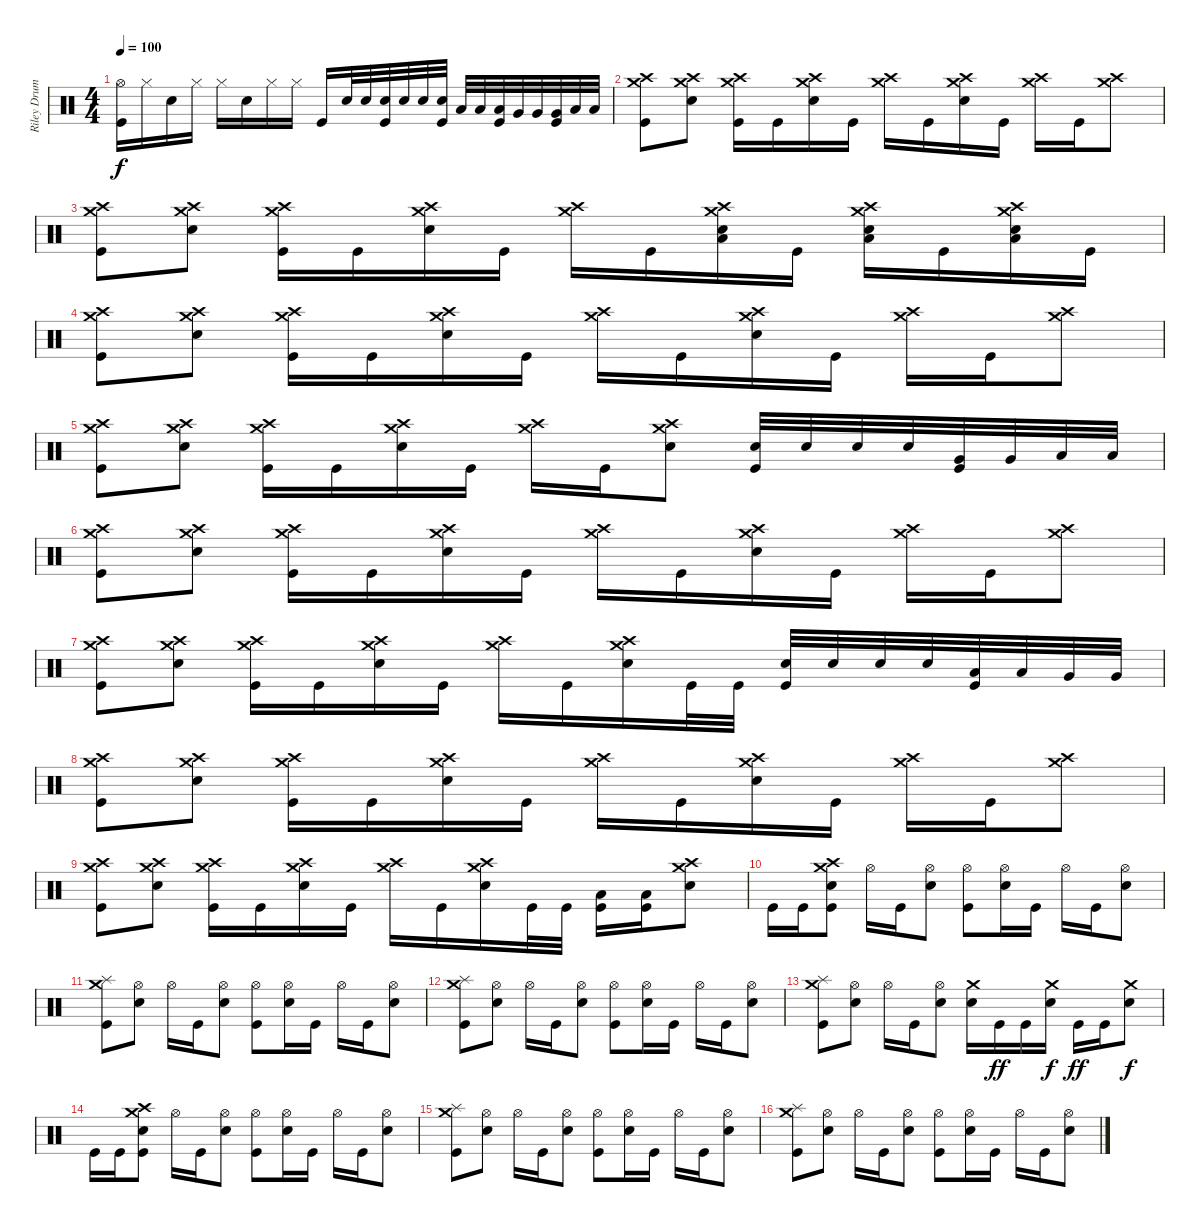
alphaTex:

\track ("Riley Drums" "Riley Drum") {instrument percussion}
\staff {score}
\articulation defaults
\ts (4 4)
\tempo 100
\clef neutral
\ks c
("Hi-Hat (open)" "Kick (hit)").16{dy f} "Hi-Hat (closed)".16 "Electric Snare (hit)".16 "Hi-Hat (closed)".16 "Hi-Hat (closed)".16 "Electric Snare (hit)".16 "Hi-Hat (closed)".16 "Hi-Hat (closed)".16 "Kick (hit)".16 "Electric Snare (hit)".32 "Electric Snare (hit)".32 ("Electric Snare (hit)" "Kick (hit)").32 "Electric Snare (hit)".32 "Electric Snare (hit)".32 ("Electric Snare (hit)" "Kick (hit)").32 "Low Tom (hit)".32 "Low Tom (hit)".32 ("Low Tom (hit)" "Kick (hit)").32 "Very Low Tom (hit)".32 "Very Low Tom (hit)".32 ("Very Low Tom (hit)" "Kick (hit)").32 "Low Floor Tom (hit)".32 "Low Floor Tom (hit)".32 |
("Crash medium (hit)" "Crash high (hit)" "Kick (hit)").8 ("Crash medium (hit)" "Crash high (hit)" "Electric Snare (hit)").8 ("Crash medium (hit)" "Crash high (hit)" "Kick (hit)").16 "Kick (hit)".16 ("Crash medium (hit)" "Crash high (hit)" "Electric Snare (hit)").16 "Kick (hit)".16 ("Crash medium (hit)" "Crash high (hit)").16 "Kick (hit)".16 ("Crash medium (hit)" "Crash high (hit)" "Electric Snare (hit)").16 "Kick (hit)".16 ("Crash medium (hit)" "Crash high (hit)").16 "Kick (hit)".16 ("Crash medium (hit)" "Crash high (hit)").8 |
("Crash medium (hit)" "Crash high (hit)" "Kick (hit)").8 ("Crash medium (hit)" "Crash high (hit)" "Electric Snare (hit)").8 ("Crash medium (hit)" "Crash high (hit)" "Kick (hit)").16 "Kick (hit)".16 ("Crash medium (hit)" "Crash high (hit)" "Electric Snare (hit)").16 "Kick (hit)".16 ("Crash medium (hit)" "Crash high (hit)").16 "Kick (hit)".16 ("Crash medium (hit)" "Crash high (hit)" "Electric Snare (hit)" "Low Floor Tom (hit)").16 "Kick (hit)".16 ("Crash medium (hit)" "Crash high (hit)" "Electric Snare (hit)" "Low Floor Tom (hit)").16 "Kick (hit)".16 ("Crash medium (hit)" "Crash high (hit)" "Electric Snare (hit)" "Low Floor Tom (hit)").16 "Kick (hit)".16 |
("Crash medium (hit)" "Crash high (hit)" "Kick (hit)").8 ("Crash medium (hit)" "Crash high (hit)" "Electric Snare (hit)").8 ("Crash medium (hit)" "Crash high (hit)" "Kick (hit)").16 "Kick (hit)".16 ("Crash medium (hit)" "Crash high (hit)" "Electric Snare (hit)").16 "Kick (hit)".16 ("Crash medium (hit)" "Crash high (hit)").16 "Kick (hit)".16 ("Crash medium (hit)" "Crash high (hit)" "Electric Snare (hit)").16 "Kick (hit)".16 ("Crash medium (hit)" "Crash high (hit)").16 "Kick (hit)".16 ("Crash medium (hit)" "Crash high (hit)").8 |
("Crash medium (hit)" "Crash high (hit)" "Kick (hit)").8 ("Crash medium (hit)" "Crash high (hit)" "Electric Snare (hit)").8 ("Crash medium (hit)" "Crash high (hit)" "Kick (hit)").16 "Kick (hit)".16 ("Crash medium (hit)" "Crash high (hit)" "Electric Snare (hit)").16 "Kick (hit)".16 ("Crash medium (hit)" "Crash high (hit)").16 "Kick (hit)".16 ("Crash medium (hit)" "Crash high (hit)" "Electric Snare (hit)").8 ("Electric Snare (hit)" "Kick (hit)").32 "Electric Snare (hit)".32 "Electric Snare (hit)".32 "Electric Snare (hit)".32 ("Very Low Tom (hit)" "Kick (hit)").32 "Very Low Tom (hit)".32 "Low Floor Tom (hit)".32 "Low Floor Tom (hit)".32 |
("Crash medium (hit)" "Crash high (hit)" "Kick (hit)").8 ("Crash medium (hit)" "Crash high (hit)" "Electric Snare (hit)").8 ("Crash medium (hit)" "Crash high (hit)" "Kick (hit)").16 "Kick (hit)".16 ("Crash medium (hit)" "Crash high (hit)" "Electric Snare (hit)").16 "Kick (hit)".16 ("Crash medium (hit)" "Crash high (hit)").16 "Kick (hit)".16 ("Crash medium (hit)" "Crash high (hit)" "Electric Snare (hit)").16 "Kick (hit)".16 ("Crash medium (hit)" "Crash high (hit)").16 "Kick (hit)".16 ("Crash medium (hit)" "Crash high (hit)").8 |
("Crash medium (hit)" "Crash high (hit)" "Kick (hit)").8 ("Crash medium (hit)" "Crash high (hit)" "Electric Snare (hit)").8 ("Crash medium (hit)" "Crash high (hit)" "Kick (hit)").16 "Kick (hit)".16 ("Crash medium (hit)" "Crash high (hit)" "Electric Snare (hit)").16 "Kick (hit)".16 ("Crash medium (hit)" "Crash high (hit)").16 "Kick (hit)".16 ("Crash medium (hit)" "Crash high (hit)" "Electric Snare (hit)").16 "Kick (hit)".32 "Kick (hit)".32 ("Electric Snare (hit)" "Kick (hit)").32 "Electric Snare (hit)".32 "Electric Snare (hit)".32 "Electric Snare (hit)".32 ("Low Tom (hit)" "Kick (hit)").32 "Low Tom (hit)".32 "Very Low Tom (hit)".32 "Very Low Tom (hit)".32 |
("Crash medium (hit)" "Crash high (hit)" "Kick (hit)").8 ("Crash medium (hit)" "Crash high (hit)" "Electric Snare (hit)").8 ("Crash medium (hit)" "Crash high (hit)" "Kick (hit)").16 "Kick (hit)".16 ("Crash medium (hit)" "Crash high (hit)" "Electric Snare (hit)").16 "Kick (hit)".16 ("Crash medium (hit)" "Crash high (hit)").16 "Kick (hit)".16 ("Crash medium (hit)" "Crash high (hit)" "Electric Snare (hit)").16 "Kick (hit)".16 ("Crash medium (hit)" "Crash high (hit)").16 "Kick (hit)".16 ("Crash medium (hit)" "Crash high (hit)").8 |
("Crash medium (hit)" "Crash high (hit)" "Kick (hit)").8 ("Crash medium (hit)" "Crash high (hit)" "Electric Snare (hit)").8 ("Crash medium (hit)" "Crash high (hit)" "Kick (hit)").16 "Kick (hit)".16 ("Crash medium (hit)" "Crash high (hit)" "Electric Snare (hit)").16 "Kick (hit)".16 ("Crash medium (hit)" "Crash high (hit)").16 "Kick (hit)".16 ("Crash medium (hit)" "Crash high (hit)" "Electric Snare (hit)").16 "Kick (hit)".32 "Kick (hit)".32 ("Low Floor Tom (hit)" "Kick (hit)").16 ("Low Floor Tom (hit)" "Kick (hit)").16 ("Crash medium (hit)" "Crash high (hit)" "Electric Snare (hit)").8 |
"Kick (hit)".16 "Kick (hit)".16 ("Crash medium (hit)" "Crash high (hit)" "Electric Snare (hit)" "Kick (hit)").8 "Hi-Hat (open)".16 "Kick (hit)".16 ("Hi-Hat (open)" "Electric Snare (hit)").8 ("Hi-Hat (open)" "Kick (hit)").8 ("Hi-Hat (open)" "Electric Snare (hit)").16 "Kick (hit)".16 "Hi-Hat (open)".16 "Kick (hit)".16 ("Hi-Hat (open)" "Electric Snare (hit)").8 |
("Crash medium (hit)" "Splash (hit)" "Kick (hit)").8 ("Hi-Hat (open)" "Electric Snare (hit)").8 "Hi-Hat (open)".16 "Kick (hit)".16 ("Hi-Hat (open)" "Electric Snare (hit)").8 ("Hi-Hat (open)" "Kick (hit)").8 ("Hi-Hat (open)" "Electric Snare (hit)").16 "Kick (hit)".16 "Hi-Hat (open)".16 "Kick (hit)".16 ("Hi-Hat (open)" "Electric Snare (hit)").8 |
("Crash medium (hit)" "Splash (hit)" "Kick (hit)").8 ("Hi-Hat (open)" "Electric Snare (hit)").8 "Hi-Hat (open)".16 "Kick (hit)".16 ("Hi-Hat (open)" "Electric Snare (hit)").8 ("Hi-Hat (open)" "Kick (hit)").8 ("Hi-Hat (open)" "Electric Snare (hit)").16 "Kick (hit)".16 "Hi-Hat (open)".16 "Kick (hit)".16 ("Hi-Hat (open)" "Electric Snare (hit)").8 |
("Crash medium (hit)" "Splash (hit)" "Kick (hit)").8 ("Hi-Hat (open)" "Electric Snare (hit)").8 "Hi-Hat (open)".16 "Kick (hit)".16 ("Hi-Hat (open)" "Electric Snare (hit)").8 ("Crash medium (hit)" "Electric Snare (hit)").16 "Kick (hit)".16{dy ff} "Kick (hit)".16 ("Crash medium (hit)" "Electric Snare (hit)").16{dy f} "Kick (hit)".16{dy ff} "Kick (hit)".16 ("Crash medium (hit)" "Electric Snare (hit)").8{dy f} |
"Kick (hit)".16 "Kick (hit)".16 ("Crash medium (hit)" "Crash high (hit)" "Electric Snare (hit)" "Kick (hit)").8 "Hi-Hat (open)".16 "Kick (hit)".16 ("Hi-Hat (open)" "Electric Snare (hit)").8 ("Hi-Hat (open)" "Kick (hit)").8 ("Hi-Hat (open)" "Electric Snare (hit)").16 "Kick (hit)".16 "Hi-Hat (open)".16 "Kick (hit)".16 ("Hi-Hat (open)" "Electric Snare (hit)").8 |
("Crash medium (hit)" "Splash (hit)" "Kick (hit)").8 ("Hi-Hat (open)" "Electric Snare (hit)").8 "Hi-Hat (open)".16 "Kick (hit)".16 ("Hi-Hat (open)" "Electric Snare (hit)").8 ("Hi-Hat (open)" "Kick (hit)").8 ("Hi-Hat (open)" "Electric Snare (hit)").16 "Kick (hit)".16 "Hi-Hat (open)".16 "Kick (hit)".16 ("Hi-Hat (open)" "Electric Snare (hit)").8 |
("Crash medium (hit)" "Splash (hit)" "Kick (hit)").8 ("Hi-Hat (open)" "Electric Snare (hit)").8 "Hi-Hat (open)".16 "Kick (hit)".16 ("Hi-Hat (open)" "Electric Snare (hit)").8 ("Hi-Hat (open)" "Kick (hit)").8 ("Hi-Hat (open)" "Electric Snare (hit)").16 "Kick (hit)".16 "Hi-Hat (open)".16 "Kick (hit)".16 ("Hi-Hat (open)" "Electric Snare (hit)").8
